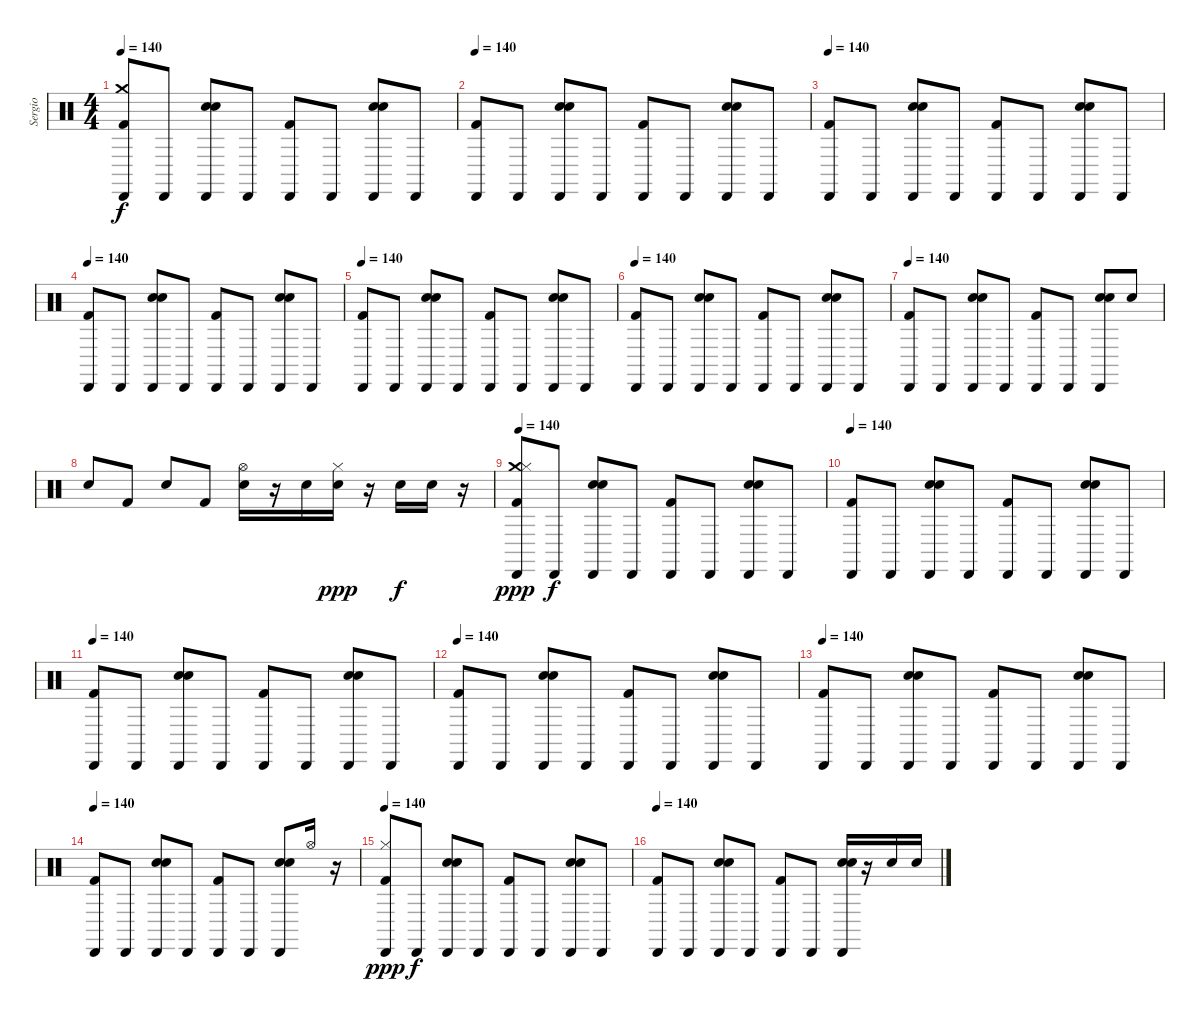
\track ("Sergio" "Sergio") {instrument percussion}
\staff {score}
\articulation defaults
\ts (4 4)
\tempo 140
\clef neutral
\ks c
("Kick (hit) 2" "Cabasa (hit)" "Crash medium (hit)").8{dy f} "Cabasa (hit)".8 ("Snare (hit) 2" "Cabasa (hit)" "Snare (hit) 2").8 "Cabasa (hit)".8 ("Kick (hit) 2" "Cabasa (hit)").8 "Cabasa (hit)".8 ("Snare (hit) 2" "Cabasa (hit)" "Snare (hit) 2").8 "Cabasa (hit)".8 |
\tempo 140
("Kick (hit) 2" "Cabasa (hit)").8 "Cabasa (hit)".8 ("Snare (hit) 2" "Cabasa (hit)" "Snare (hit) 2").8 "Cabasa (hit)".8 ("Kick (hit) 2" "Cabasa (hit)").8 "Cabasa (hit)".8 ("Snare (hit) 2" "Cabasa (hit)" "Snare (hit) 2").8 "Cabasa (hit)".8 |
\tempo 140
("Kick (hit) 2" "Cabasa (hit)").8 "Cabasa (hit)".8 ("Snare (hit) 2" "Cabasa (hit)" "Snare (hit) 2").8 "Cabasa (hit)".8 ("Kick (hit) 2" "Cabasa (hit)").8 "Cabasa (hit)".8 ("Snare (hit) 2" "Cabasa (hit)" "Snare (hit) 2").8 "Cabasa (hit)".8 |
\tempo 140
("Kick (hit) 2" "Cabasa (hit)").8 "Cabasa (hit)".8 ("Snare (hit) 2" "Cabasa (hit)" "Snare (hit) 2").8 "Cabasa (hit)".8 ("Kick (hit) 2" "Cabasa (hit)").8 "Cabasa (hit)".8 ("Snare (hit) 2" "Cabasa (hit)" "Snare (hit) 2").8 "Cabasa (hit)".8 |
\tempo 140
("Kick (hit) 2" "Cabasa (hit)").8 "Cabasa (hit)".8 ("Snare (hit) 2" "Cabasa (hit)" "Snare (hit) 2").8 "Cabasa (hit)".8 ("Kick (hit) 2" "Cabasa (hit)").8 "Cabasa (hit)".8 ("Snare (hit) 2" "Cabasa (hit)" "Snare (hit) 2").8 "Cabasa (hit)".8 |
\tempo 140
("Kick (hit) 2" "Cabasa (hit)").8 "Cabasa (hit)".8 ("Snare (hit) 2" "Cabasa (hit)" "Snare (hit) 2").8 "Cabasa (hit)".8 ("Kick (hit) 2" "Cabasa (hit)").8 "Cabasa (hit)".8 ("Snare (hit) 2" "Cabasa (hit)" "Snare (hit) 2").8 "Cabasa (hit)".8 |
\tempo 140
("Kick (hit) 2" "Cabasa (hit)").8 "Cabasa (hit)".8 ("Snare (hit) 2" "Cabasa (hit)" "Snare (hit) 2").8 "Cabasa (hit)".8 ("Kick (hit) 2" "Cabasa (hit)").8 "Cabasa (hit)".8 ("Snare (hit) 2" "Cabasa (hit)" "Snare (hit) 2").8 "Snare (hit) 2".8 |
"Snare (hit) 2".8 "Kick (hit) 2".8 "Snare (hit) 2".8 "Kick (hit) 2".8 ("Snare (hit) 2" "Hi-Hat (open)").16 r.16 "Snare (hit) 2".16 ("Snare (hit) 2" "Hi-Hat (closed)").16{dy ppp} r.16 "Snare (hit) 2".16{dy f} "Snare (hit) 2".16 r.16 |
\tempo 140
("Kick (hit) 2" "Cabasa (hit)" "Crash medium (hit)" "Hi-Hat (closed)").8{dy ppp} "Cabasa (hit)".8{dy f} ("Snare (hit) 2" "Cabasa (hit)" "Snare (hit) 2").8 "Cabasa (hit)".8 ("Kick (hit) 2" "Cabasa (hit)").8 "Cabasa (hit)".8 ("Snare (hit) 2" "Cabasa (hit)" "Snare (hit) 2").8 "Cabasa (hit)".8 |
\tempo 140
("Kick (hit) 2" "Cabasa (hit)").8 "Cabasa (hit)".8 ("Snare (hit) 2" "Cabasa (hit)" "Snare (hit) 2").8 "Cabasa (hit)".8 ("Kick (hit) 2" "Cabasa (hit)").8 "Cabasa (hit)".8 ("Snare (hit) 2" "Cabasa (hit)" "Snare (hit) 2").8 "Cabasa (hit)".8 |
\tempo 140
("Kick (hit) 2" "Cabasa (hit)").8 "Cabasa (hit)".8 ("Snare (hit) 2" "Cabasa (hit)" "Snare (hit) 2").8 "Cabasa (hit)".8 ("Kick (hit) 2" "Cabasa (hit)").8 "Cabasa (hit)".8 ("Snare (hit) 2" "Cabasa (hit)" "Snare (hit) 2").8 "Cabasa (hit)".8 |
\tempo 140
("Kick (hit) 2" "Cabasa (hit)").8 "Cabasa (hit)".8 ("Snare (hit) 2" "Cabasa (hit)" "Snare (hit) 2").8 "Cabasa (hit)".8 ("Kick (hit) 2" "Cabasa (hit)").8 "Cabasa (hit)".8 ("Snare (hit) 2" "Cabasa (hit)" "Snare (hit) 2").8 "Cabasa (hit)".8 |
\tempo 140
("Kick (hit) 2" "Cabasa (hit)").8 "Cabasa (hit)".8 ("Snare (hit) 2" "Cabasa (hit)" "Snare (hit) 2").8 "Cabasa (hit)".8 ("Kick (hit) 2" "Cabasa (hit)").8 "Cabasa (hit)".8 ("Snare (hit) 2" "Cabasa (hit)" "Snare (hit) 2").8 "Cabasa (hit)".8 |
\tempo 140
("Kick (hit) 2" "Cabasa (hit)").8 "Cabasa (hit)".8 ("Snare (hit) 2" "Cabasa (hit)" "Snare (hit) 2").8 "Cabasa (hit)".8 ("Kick (hit) 2" "Cabasa (hit)").8 "Cabasa (hit)".8 ("Snare (hit) 2" "Cabasa (hit)" "Snare (hit) 2").8 "Hi-Hat (open)".16 r.16 |
\tempo 140
("Kick (hit) 2" "Cabasa (hit)" "Hi-Hat (closed)").8{dy ppp} "Cabasa (hit)".8{dy f} ("Snare (hit) 2" "Cabasa (hit)" "Snare (hit) 2").8 "Cabasa (hit)".8 ("Kick (hit) 2" "Cabasa (hit)").8 "Cabasa (hit)".8 ("Snare (hit) 2" "Cabasa (hit)" "Snare (hit) 2").8 "Cabasa (hit)".8 |
\tempo 140
("Kick (hit) 2" "Cabasa (hit)").8 "Cabasa (hit)".8 ("Snare (hit) 2" "Cabasa (hit)" "Snare (hit) 2").8 "Cabasa (hit)".8 ("Kick (hit) 2" "Cabasa (hit)").8 "Cabasa (hit)".8 ("Snare (hit) 2" "Cabasa (hit)" "Snare (hit) 2").16 r.16 "Snare (hit) 2".16 "Snare (hit) 2".16
